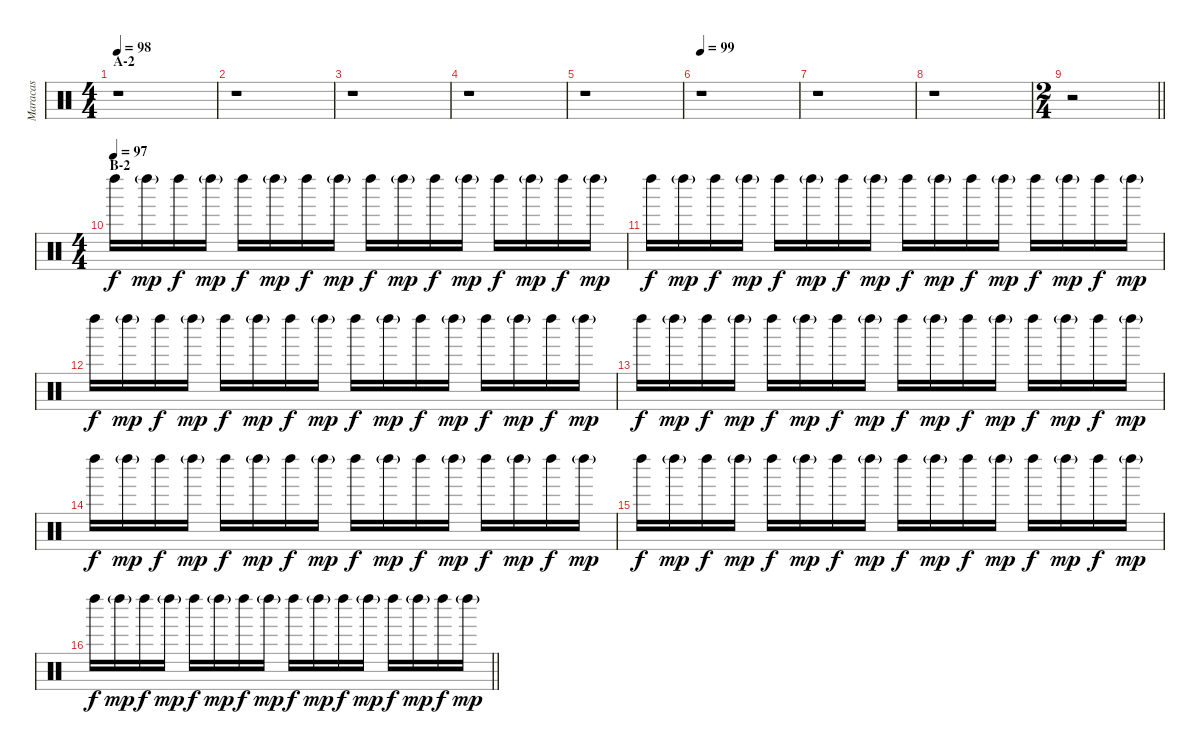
\track ("Maracas" "Maracas") {instrument percussion}
\staff {score}
\articulation defaults
\ts (4 4)
\section ("" "A-2")
\tempo 98
\clef neutral
\ks c
r.1{dy mp} |
r.1 |
r.1 |
r.1 |
r.1 |
\tempo 99
r.1 |
r.1 |
r.1 |
\ts (2 4)
\barLineRight lightlight
r.2 |
\ts (4 4)
\section ("" "B-2")
\tempo (97)
"Left Maraca (hit)".16{dy f} "Left Maraca (hit)"{g}.16{dy mp} "Left Maraca (hit)".16{dy f} "Left Maraca (hit)"{g}.16{dy mp} "Left Maraca (hit)".16{dy f} "Left Maraca (hit)"{g}.16{dy mp} "Left Maraca (hit)".16{dy f} "Left Maraca (hit)"{g}.16{dy mp} "Left Maraca (hit)".16{dy f} "Left Maraca (hit)"{g}.16{dy mp} "Left Maraca (hit)".16{dy f} "Left Maraca (hit)"{g}.16{dy mp} "Left Maraca (hit)".16{dy f} "Left Maraca (hit)"{g}.16{dy mp} "Left Maraca (hit)".16{dy f} "Left Maraca (hit)"{g}.16{dy mp} |
"Left Maraca (hit)".16{dy f} "Left Maraca (hit)"{g}.16{dy mp} "Left Maraca (hit)".16{dy f} "Left Maraca (hit)"{g}.16{dy mp} "Left Maraca (hit)".16{dy f} "Left Maraca (hit)"{g}.16{dy mp} "Left Maraca (hit)".16{dy f} "Left Maraca (hit)"{g}.16{dy mp} "Left Maraca (hit)".16{dy f} "Left Maraca (hit)"{g}.16{dy mp} "Left Maraca (hit)".16{dy f} "Left Maraca (hit)"{g}.16{dy mp} "Left Maraca (hit)".16{dy f} "Left Maraca (hit)"{g}.16{dy mp} "Left Maraca (hit)".16{dy f} "Left Maraca (hit)"{g}.16{dy mp} |
"Left Maraca (hit)".16{dy f} "Left Maraca (hit)"{g}.16{dy mp} "Left Maraca (hit)".16{dy f} "Left Maraca (hit)"{g}.16{dy mp} "Left Maraca (hit)".16{dy f} "Left Maraca (hit)"{g}.16{dy mp} "Left Maraca (hit)".16{dy f} "Left Maraca (hit)"{g}.16{dy mp} "Left Maraca (hit)".16{dy f} "Left Maraca (hit)"{g}.16{dy mp} "Left Maraca (hit)".16{dy f} "Left Maraca (hit)"{g}.16{dy mp} "Left Maraca (hit)".16{dy f} "Left Maraca (hit)"{g}.16{dy mp} "Left Maraca (hit)".16{dy f} "Left Maraca (hit)"{g}.16{dy mp} |
"Left Maraca (hit)".16{dy f} "Left Maraca (hit)"{g}.16{dy mp} "Left Maraca (hit)".16{dy f} "Left Maraca (hit)"{g}.16{dy mp} "Left Maraca (hit)".16{dy f} "Left Maraca (hit)"{g}.16{dy mp} "Left Maraca (hit)".16{dy f} "Left Maraca (hit)"{g}.16{dy mp} "Left Maraca (hit)".16{dy f} "Left Maraca (hit)"{g}.16{dy mp} "Left Maraca (hit)".16{dy f} "Left Maraca (hit)"{g}.16{dy mp} "Left Maraca (hit)".16{dy f} "Left Maraca (hit)"{g}.16{dy mp} "Left Maraca (hit)".16{dy f} "Left Maraca (hit)"{g}.16{dy mp} |
"Left Maraca (hit)".16{dy f} "Left Maraca (hit)"{g}.16{dy mp} "Left Maraca (hit)".16{dy f} "Left Maraca (hit)"{g}.16{dy mp} "Left Maraca (hit)".16{dy f} "Left Maraca (hit)"{g}.16{dy mp} "Left Maraca (hit)".16{dy f} "Left Maraca (hit)"{g}.16{dy mp} "Left Maraca (hit)".16{dy f} "Left Maraca (hit)"{g}.16{dy mp} "Left Maraca (hit)".16{dy f} "Left Maraca (hit)"{g}.16{dy mp} "Left Maraca (hit)".16{dy f} "Left Maraca (hit)"{g}.16{dy mp} "Left Maraca (hit)".16{dy f} "Left Maraca (hit)"{g}.16{dy mp} |
"Left Maraca (hit)".16{dy f} "Left Maraca (hit)"{g}.16{dy mp} "Left Maraca (hit)".16{dy f} "Left Maraca (hit)"{g}.16{dy mp} "Left Maraca (hit)".16{dy f} "Left Maraca (hit)"{g}.16{dy mp} "Left Maraca (hit)".16{dy f} "Left Maraca (hit)"{g}.16{dy mp} "Left Maraca (hit)".16{dy f} "Left Maraca (hit)"{g}.16{dy mp} "Left Maraca (hit)".16{dy f} "Left Maraca (hit)"{g}.16{dy mp} "Left Maraca (hit)".16{dy f} "Left Maraca (hit)"{g}.16{dy mp} "Left Maraca (hit)".16{dy f} "Left Maraca (hit)"{g}.16{dy mp} |
\barLineRight lightlight "Left Maraca (hit)".16{dy f} "Left Maraca (hit)"{g}.16{dy mp} "Left Maraca (hit)".16{dy f} "Left Maraca (hit)"{g}.16{dy mp} "Left Maraca (hit)".16{dy f} "Left Maraca (hit)"{g}.16{dy mp} "Left Maraca (hit)".16{dy f} "Left Maraca (hit)"{g}.16{dy mp} "Left Maraca (hit)".16{dy f} "Left Maraca (hit)"{g}.16{dy mp} "Left Maraca (hit)".16{dy f} "Left Maraca (hit)"{g}.16{dy mp} "Left Maraca (hit)".16{dy f} "Left Maraca (hit)"{g}.16{dy mp} "Left Maraca (hit)".16{dy f} "Left Maraca (hit)"{g}.16{dy mp}
